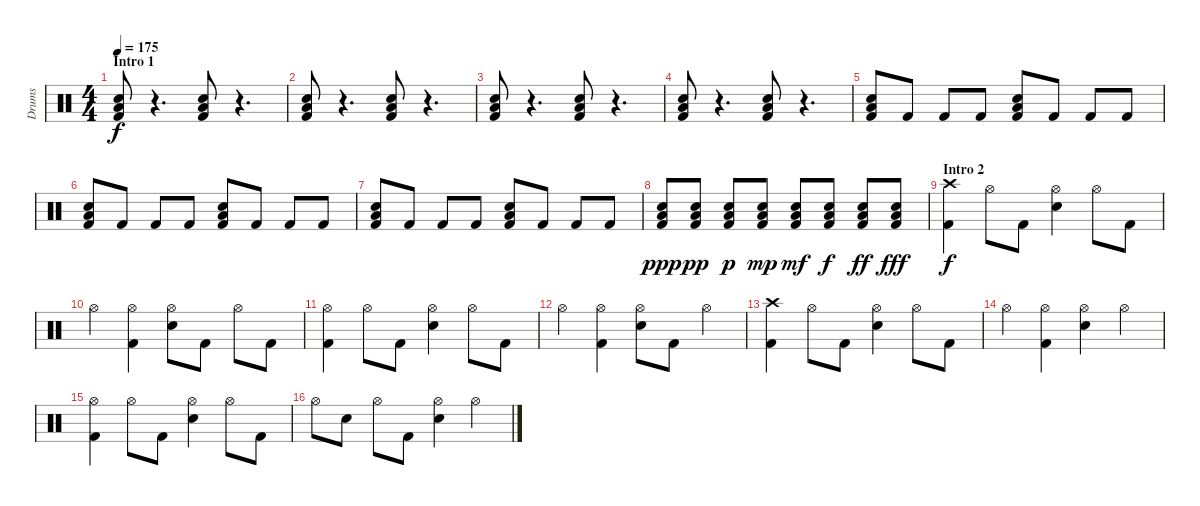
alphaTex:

\track ("Drums" "Drums") {instrument percussion}
\staff {score}
\articulation defaults
\ts (4 4)
\section ("" "Intro 1")
\tempo 175
\clef neutral
\ks c
("Electric Snare (hit)" "Low Floor Tom (hit)" "Kick (hit) 2").8{dy f} r.4{d} ("Electric Snare (hit)" "Low Floor Tom (hit)" "Kick (hit) 2").8 r.4{d} |
("Electric Snare (hit)" "Low Floor Tom (hit)" "Kick (hit) 2").8 r.4{d} ("Electric Snare (hit)" "Low Floor Tom (hit)" "Kick (hit) 2").8 r.4{d} |
("Electric Snare (hit)" "Low Floor Tom (hit)" "Kick (hit) 2").8 r.4{d} ("Electric Snare (hit)" "Low Floor Tom (hit)" "Kick (hit) 2").8 r.4{d} |
("Electric Snare (hit)" "Low Floor Tom (hit)" "Kick (hit) 2").8 r.4{d} ("Electric Snare (hit)" "Low Floor Tom (hit)" "Kick (hit) 2").8 r.4{d} |
("Electric Snare (hit)" "Low Floor Tom (hit)" "Kick (hit) 2").8 "Kick (hit) 2".8 "Kick (hit) 2".8 "Kick (hit) 2".8 ("Electric Snare (hit)" "Low Floor Tom (hit)" "Kick (hit) 2").8 "Kick (hit) 2".8 "Kick (hit) 2".8 "Kick (hit) 2".8 |
("Electric Snare (hit)" "Low Floor Tom (hit)" "Kick (hit) 2").8 "Kick (hit) 2".8 "Kick (hit) 2".8 "Kick (hit) 2".8 ("Electric Snare (hit)" "Low Floor Tom (hit)" "Kick (hit) 2").8 "Kick (hit) 2".8 "Kick (hit) 2".8 "Kick (hit) 2".8 |
("Electric Snare (hit)" "Low Floor Tom (hit)" "Kick (hit) 2").8 "Kick (hit) 2".8 "Kick (hit) 2".8 "Kick (hit) 2".8 ("Electric Snare (hit)" "Low Floor Tom (hit)" "Kick (hit) 2").8 "Kick (hit) 2".8 "Kick (hit) 2".8 "Kick (hit) 2".8 |
("Electric Snare (hit)" "Low Floor Tom (hit)" "Kick (hit) 2").8{dy ppp} ("Electric Snare (hit)" "Low Floor Tom (hit)" "Kick (hit) 2").8{dy pp} ("Electric Snare (hit)" "Low Floor Tom (hit)" "Kick (hit) 2").8{dy p} ("Electric Snare (hit)" "Low Floor Tom (hit)" "Kick (hit) 2").8{dy mp} ("Electric Snare (hit)" "Low Floor Tom (hit)" "Kick (hit) 2").8{dy mf} ("Electric Snare (hit)" "Low Floor Tom (hit)" "Kick (hit) 2").8{dy f} ("Electric Snare (hit)" "Low Floor Tom (hit)" "Kick (hit) 2").8{dy ff} ("Electric Snare (hit)" "Low Floor Tom (hit)" "Kick (hit) 2").8{dy fff} |
\section ("" "Intro 2")
("Crash high (hit)" "Kick (hit) 2").4{dy f} "Hi-Hat (open)".8 "Kick (hit) 2".8 ("Hi-Hat (open)" "Electric Snare (hit)").4 "Hi-Hat (open)".8 "Kick (hit) 2".8 |
"Hi-Hat (open)".4 ("Hi-Hat (open)" "Kick (hit) 2").4 ("Hi-Hat (open)" "Electric Snare (hit)").8 "Kick (hit) 2".8 "Hi-Hat (open)".8 "Kick (hit) 2".8 |
("Hi-Hat (open)" "Kick (hit) 2").4 "Hi-Hat (open)".8 "Kick (hit) 2".8 ("Hi-Hat (open)" "Electric Snare (hit)").4 "Hi-Hat (open)".8 "Kick (hit) 2".8 |
"Hi-Hat (open)".4 ("Hi-Hat (open)" "Kick (hit) 2").4 ("Hi-Hat (open)" "Electric Snare (hit)").8 "Kick (hit) 2".8 "Hi-Hat (open)".4 |
("Crash high (hit)" "Kick (hit) 2").4 "Hi-Hat (open)".8 "Kick (hit) 2".8 ("Hi-Hat (open)" "Electric Snare (hit)").4 "Hi-Hat (open)".8 "Kick (hit) 2".8 |
"Hi-Hat (open)".4 ("Hi-Hat (open)" "Kick (hit) 2").4 ("Hi-Hat (open)" "Electric Snare (hit)").4 "Hi-Hat (open)".4 |
("Hi-Hat (open)" "Kick (hit) 2").4 "Hi-Hat (open)".8 "Kick (hit) 2".8 ("Hi-Hat (open)" "Electric Snare (hit)").4 "Hi-Hat (open)".8 "Kick (hit) 2".8 |
"Hi-Hat (open)".8 "Electric Snare (hit)".8 "Hi-Hat (open)".8 "Kick (hit) 2".8 ("Hi-Hat (open)" "Electric Snare (hit)").4 "Hi-Hat (open)".4
